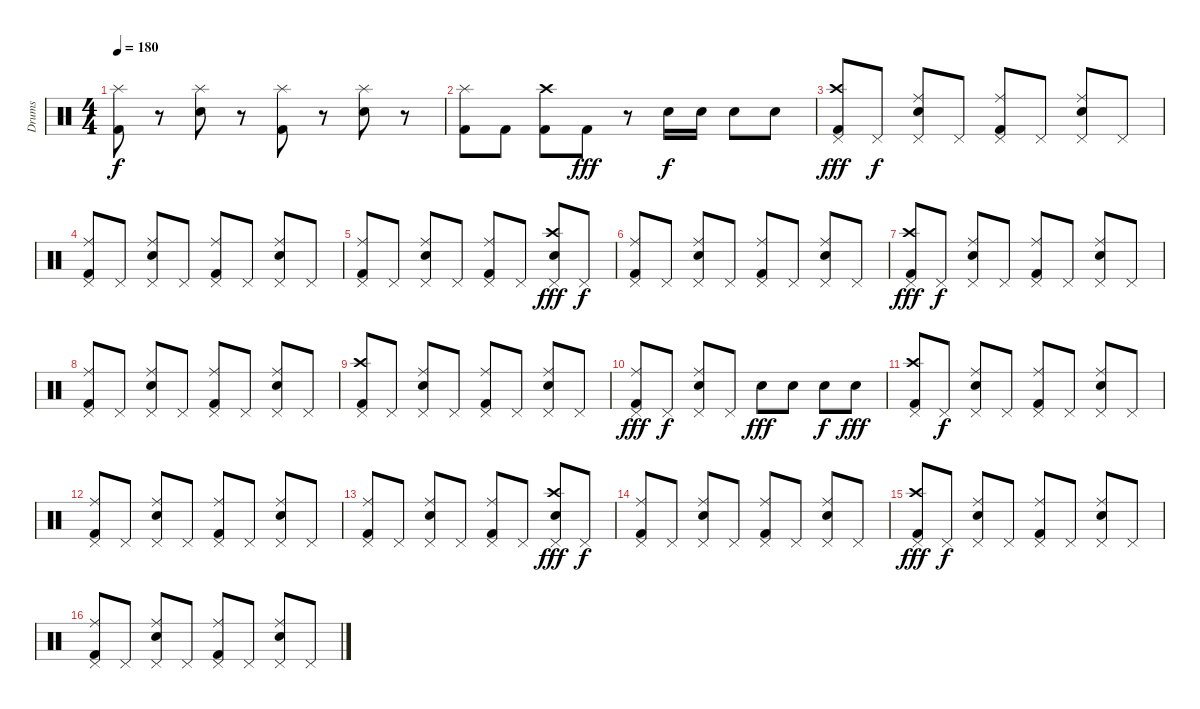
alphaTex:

\track ("Drums" "Drums") {instrument percussion}
\staff {score}
\articulation defaults
\ts (4 4)
\tempo 180
\clef neutral
\ks c
("Splash (hit)" "Kick (hit) 2").8{dy f} r.8 ("Splash (hit)" "Electric Snare (hit)").8 r.8 ("Splash (hit)" "Kick (hit) 2").8 r.8 ("Splash (hit)" "Electric Snare (hit)").8 r.8 |
("Splash (hit)" "Kick (hit) 2").8 "Kick (hit) 2".8 ("Crash high (hit)" "Kick (hit) 2").8 "Kick (hit) 2".8{dy fff} r.8 "Electric Snare (hit)".16{dy f} "Electric Snare (hit)".16 "Electric Snare (hit)".8 "Electric Snare (hit)".8 |
("Crash high (hit)" "Pedal Hi-Hat (hit)" "Kick (hit) 2").8{dy fff} "Pedal Hi-Hat (hit)".8{dy f} ("Ride (middle)" "Pedal Hi-Hat (hit)" "Electric Snare (hit)").8 "Pedal Hi-Hat (hit)".8 ("Ride (middle)" "Pedal Hi-Hat (hit)" "Kick (hit) 2").8 "Pedal Hi-Hat (hit)".8 ("Ride (middle)" "Pedal Hi-Hat (hit)" "Electric Snare (hit)").8 "Pedal Hi-Hat (hit)".8 |
("Ride (middle)" "Pedal Hi-Hat (hit)" "Kick (hit) 2").8 "Pedal Hi-Hat (hit)".8 ("Ride (middle)" "Pedal Hi-Hat (hit)" "Electric Snare (hit)").8 "Pedal Hi-Hat (hit)".8 ("Ride (middle)" "Pedal Hi-Hat (hit)" "Kick (hit) 2").8 "Pedal Hi-Hat (hit)".8 ("Ride (middle)" "Pedal Hi-Hat (hit)" "Electric Snare (hit)").8 "Pedal Hi-Hat (hit)".8 |
("Ride (middle)" "Pedal Hi-Hat (hit)" "Kick (hit) 2").8 "Pedal Hi-Hat (hit)".8 ("Ride (middle)" "Pedal Hi-Hat (hit)" "Electric Snare (hit)").8 "Pedal Hi-Hat (hit)".8 ("Ride (middle)" "Pedal Hi-Hat (hit)" "Kick (hit) 2").8 "Pedal Hi-Hat (hit)".8 ("Crash high (hit)" "Pedal Hi-Hat (hit)" "Electric Snare (hit)").8{dy fff} "Pedal Hi-Hat (hit)".8{dy f} |
("Ride (middle)" "Pedal Hi-Hat (hit)" "Kick (hit) 2").8 "Pedal Hi-Hat (hit)".8 ("Ride (middle)" "Pedal Hi-Hat (hit)" "Electric Snare (hit)").8 "Pedal Hi-Hat (hit)".8 ("Ride (middle)" "Pedal Hi-Hat (hit)" "Kick (hit) 2").8 "Pedal Hi-Hat (hit)".8 ("Ride (middle)" "Pedal Hi-Hat (hit)" "Electric Snare (hit)").8 "Pedal Hi-Hat (hit)".8 |
("Crash high (hit)" "Pedal Hi-Hat (hit)" "Kick (hit) 2").8{dy fff} "Pedal Hi-Hat (hit)".8{dy f} ("Ride (middle)" "Pedal Hi-Hat (hit)" "Electric Snare (hit)").8 "Pedal Hi-Hat (hit)".8 ("Ride (middle)" "Pedal Hi-Hat (hit)" "Kick (hit) 2").8 "Pedal Hi-Hat (hit)".8 ("Ride (middle)" "Pedal Hi-Hat (hit)" "Electric Snare (hit)").8 "Pedal Hi-Hat (hit)".8 |
("Ride (middle)" "Pedal Hi-Hat (hit)" "Kick (hit) 2").8 "Pedal Hi-Hat (hit)".8 ("Ride (middle)" "Pedal Hi-Hat (hit)" "Electric Snare (hit)").8 "Pedal Hi-Hat (hit)".8 ("Ride (middle)" "Pedal Hi-Hat (hit)" "Kick (hit) 2").8 "Pedal Hi-Hat (hit)".8 ("Ride (middle)" "Pedal Hi-Hat (hit)" "Electric Snare (hit)").8 "Pedal Hi-Hat (hit)".8 |
("Crash high (hit)" "Pedal Hi-Hat (hit)" "Kick (hit) 2").8 "Pedal Hi-Hat (hit)".8 ("Ride (middle)" "Pedal Hi-Hat (hit)" "Electric Snare (hit)").8 "Pedal Hi-Hat (hit)".8 ("Ride (middle)" "Pedal Hi-Hat (hit)" "Kick (hit) 2").8 "Pedal Hi-Hat (hit)".8 ("Ride (middle)" "Pedal Hi-Hat (hit)" "Electric Snare (hit)").8 "Pedal Hi-Hat (hit)".8 |
("Ride (middle)" "Pedal Hi-Hat (hit)" "Kick (hit) 2").8{dy fff} "Pedal Hi-Hat (hit)".8{dy f} ("Ride (middle)" "Pedal Hi-Hat (hit)" "Electric Snare (hit)").8 "Pedal Hi-Hat (hit)".8 "Electric Snare (hit)".8{dy fff} "Electric Snare (hit)".8 "Electric Snare (hit)".8{dy f} "Electric Snare (hit)".8{dy fff} |
("Crash high (hit)" "Pedal Hi-Hat (hit)" "Kick (hit) 2").8 "Pedal Hi-Hat (hit)".8{dy f} ("Ride (middle)" "Pedal Hi-Hat (hit)" "Electric Snare (hit)").8 "Pedal Hi-Hat (hit)".8 ("Ride (middle)" "Pedal Hi-Hat (hit)" "Kick (hit) 2").8 "Pedal Hi-Hat (hit)".8 ("Ride (middle)" "Pedal Hi-Hat (hit)" "Electric Snare (hit)").8 "Pedal Hi-Hat (hit)".8 |
("Ride (middle)" "Pedal Hi-Hat (hit)" "Kick (hit) 2").8 "Pedal Hi-Hat (hit)".8 ("Ride (middle)" "Pedal Hi-Hat (hit)" "Electric Snare (hit)").8 "Pedal Hi-Hat (hit)".8 ("Ride (middle)" "Pedal Hi-Hat (hit)" "Kick (hit) 2").8 "Pedal Hi-Hat (hit)".8 ("Ride (middle)" "Pedal Hi-Hat (hit)" "Electric Snare (hit)").8 "Pedal Hi-Hat (hit)".8 |
("Ride (middle)" "Pedal Hi-Hat (hit)" "Kick (hit) 2").8 "Pedal Hi-Hat (hit)".8 ("Ride (middle)" "Pedal Hi-Hat (hit)" "Electric Snare (hit)").8 "Pedal Hi-Hat (hit)".8 ("Ride (middle)" "Pedal Hi-Hat (hit)" "Kick (hit) 2").8 "Pedal Hi-Hat (hit)".8 ("Crash high (hit)" "Pedal Hi-Hat (hit)" "Electric Snare (hit)").8{dy fff} "Pedal Hi-Hat (hit)".8{dy f} |
("Ride (middle)" "Pedal Hi-Hat (hit)" "Kick (hit) 2").8 "Pedal Hi-Hat (hit)".8 ("Ride (middle)" "Pedal Hi-Hat (hit)" "Electric Snare (hit)").8 "Pedal Hi-Hat (hit)".8 ("Ride (middle)" "Pedal Hi-Hat (hit)" "Kick (hit) 2").8 "Pedal Hi-Hat (hit)".8 ("Ride (middle)" "Pedal Hi-Hat (hit)" "Electric Snare (hit)").8 "Pedal Hi-Hat (hit)".8 |
("Crash high (hit)" "Pedal Hi-Hat (hit)" "Kick (hit) 2").8{dy fff} "Pedal Hi-Hat (hit)".8{dy f} ("Ride (middle)" "Pedal Hi-Hat (hit)" "Electric Snare (hit)").8 "Pedal Hi-Hat (hit)".8 ("Ride (middle)" "Pedal Hi-Hat (hit)" "Kick (hit) 2").8 "Pedal Hi-Hat (hit)".8 ("Ride (middle)" "Pedal Hi-Hat (hit)" "Electric Snare (hit)").8 "Pedal Hi-Hat (hit)".8 |
("Ride (middle)" "Pedal Hi-Hat (hit)" "Kick (hit) 2").8 "Pedal Hi-Hat (hit)".8 ("Ride (middle)" "Pedal Hi-Hat (hit)" "Electric Snare (hit)").8 "Pedal Hi-Hat (hit)".8 ("Ride (middle)" "Pedal Hi-Hat (hit)" "Kick (hit) 2").8 "Pedal Hi-Hat (hit)".8 ("Ride (middle)" "Pedal Hi-Hat (hit)" "Electric Snare (hit)").8 "Pedal Hi-Hat (hit)".8
